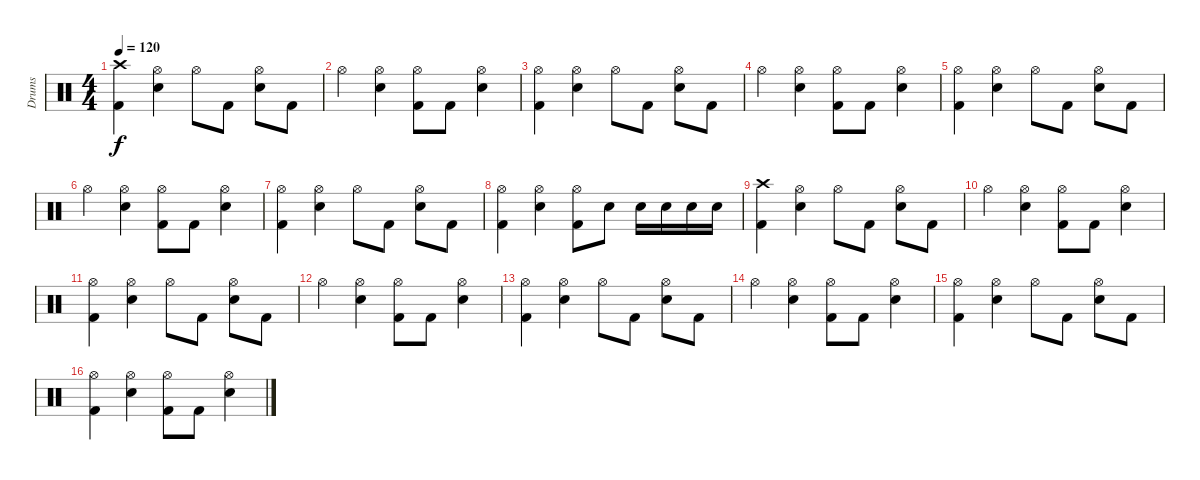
\track ("Drums" "Drums") {instrument percussion}
\staff {score}
\articulation defaults
\ts (4 4)
\section ("" "")
\tempo 120
\clef neutral
\ks c
("Crash high (hit)" "Kick (hit) 2").4{dy f} ("Hi-Hat (open)" "Electric Snare (hit)").4 "Hi-Hat (open)".8 "Kick (hit) 2".8 ("Hi-Hat (open)" "Electric Snare (hit)").8 "Kick (hit) 2".8 |
"Hi-Hat (open)".4 ("Hi-Hat (open)" "Electric Snare (hit)").4 ("Hi-Hat (open)" "Kick (hit) 2").8 "Kick (hit) 2".8 ("Hi-Hat (open)" "Electric Snare (hit)").4 |
("Hi-Hat (open)" "Kick (hit) 2").4 ("Hi-Hat (open)" "Electric Snare (hit)").4 "Hi-Hat (open)".8 "Kick (hit) 2".8 ("Hi-Hat (open)" "Electric Snare (hit)").8 "Kick (hit) 2".8 |
"Hi-Hat (open)".4 ("Hi-Hat (open)" "Electric Snare (hit)").4 ("Hi-Hat (open)" "Kick (hit) 2").8 "Kick (hit) 2".8 ("Hi-Hat (open)" "Electric Snare (hit)").4 |
("Hi-Hat (open)" "Kick (hit) 2").4 ("Hi-Hat (open)" "Electric Snare (hit)").4 "Hi-Hat (open)".8 "Kick (hit) 2".8 ("Hi-Hat (open)" "Electric Snare (hit)").8 "Kick (hit) 2".8 |
"Hi-Hat (open)".4 ("Hi-Hat (open)" "Electric Snare (hit)").4 ("Hi-Hat (open)" "Kick (hit) 2").8 "Kick (hit) 2".8 ("Hi-Hat (open)" "Electric Snare (hit)").4 |
("Hi-Hat (open)" "Kick (hit) 2").4 ("Hi-Hat (open)" "Electric Snare (hit)").4 "Hi-Hat (open)".8 "Kick (hit) 2".8 ("Hi-Hat (open)" "Electric Snare (hit)").8 "Kick (hit) 2".8 |
("Hi-Hat (open)" "Kick (hit) 2").4 ("Hi-Hat (open)" "Electric Snare (hit)").4 ("Hi-Hat (open)" "Kick (hit) 2").8 "Electric Snare (hit)".8 "Electric Snare (hit)".16 "Electric Snare (hit)".16 "Electric Snare (hit)".16 "Electric Snare (hit)".16 |
("Crash high (hit)" "Kick (hit) 2").4 ("Hi-Hat (open)" "Electric Snare (hit)").4 "Hi-Hat (open)".8 "Kick (hit) 2".8 ("Hi-Hat (open)" "Electric Snare (hit)").8 "Kick (hit) 2".8 |
"Hi-Hat (open)".4 ("Hi-Hat (open)" "Electric Snare (hit)").4 ("Hi-Hat (open)" "Kick (hit) 2").8 "Kick (hit) 2".8 ("Hi-Hat (open)" "Electric Snare (hit)").4 |
("Hi-Hat (open)" "Kick (hit) 2").4 ("Hi-Hat (open)" "Electric Snare (hit)").4 "Hi-Hat (open)".8 "Kick (hit) 2".8 ("Hi-Hat (open)" "Electric Snare (hit)").8 "Kick (hit) 2".8 |
"Hi-Hat (open)".4 ("Hi-Hat (open)" "Electric Snare (hit)").4 ("Hi-Hat (open)" "Kick (hit) 2").8 "Kick (hit) 2".8 ("Hi-Hat (open)" "Electric Snare (hit)").4 |
("Hi-Hat (open)" "Kick (hit) 2").4 ("Hi-Hat (open)" "Electric Snare (hit)").4 "Hi-Hat (open)".8 "Kick (hit) 2".8 ("Hi-Hat (open)" "Electric Snare (hit)").8 "Kick (hit) 2".8 |
"Hi-Hat (open)".4 ("Hi-Hat (open)" "Electric Snare (hit)").4 ("Hi-Hat (open)" "Kick (hit) 2").8 "Kick (hit) 2".8 ("Hi-Hat (open)" "Electric Snare (hit)").4 |
("Hi-Hat (open)" "Kick (hit) 2").4 ("Hi-Hat (open)" "Electric Snare (hit)").4 "Hi-Hat (open)".8 "Kick (hit) 2".8 ("Hi-Hat (open)" "Electric Snare (hit)").8 "Kick (hit) 2".8 |
("Hi-Hat (open)" "Kick (hit) 2").4 ("Hi-Hat (open)" "Electric Snare (hit)").4 ("Hi-Hat (open)" "Kick (hit) 2").8 "Kick (hit) 2".8 ("Hi-Hat (open)" "Electric Snare (hit)").4
